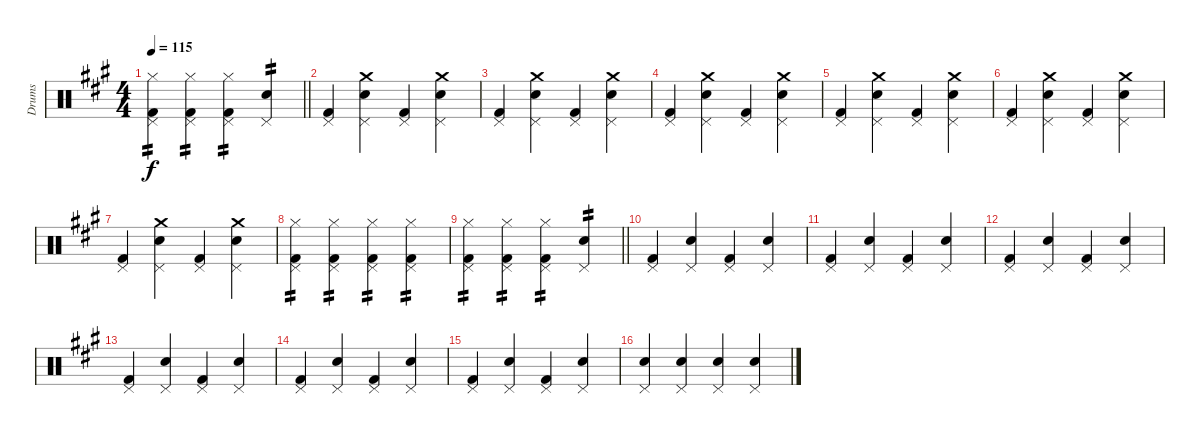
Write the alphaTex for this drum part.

\track ("Drums" "Drums") {instrument percussion}
\staff {score}
\articulation defaults
\ts (4 4)
\tempo 115
\clef neutral
\barLineRight lightlight
\ks a
("Kick (hit) 2" "Pedal Hi-Hat (hit)" "Hi-Hat (closed)").4{tp 2 dy f} ("Kick (hit) 2" "Pedal Hi-Hat (hit)" "Hi-Hat (closed)").4{tp 2} ("Kick (hit) 2" "Pedal Hi-Hat (hit)" "Hi-Hat (closed)").4{tp 2} ("Snare (hit) 2" "Pedal Hi-Hat (hit)").4{tp 2} |
("Kick (hit) 2" "Pedal Hi-Hat (hit)").4 ("Snare (hit) 2" "Pedal Hi-Hat (hit)" "Crash medium (hit)").4 ("Kick (hit) 2" "Pedal Hi-Hat (hit)").4 ("Snare (hit) 2" "Pedal Hi-Hat (hit)" "Crash medium (hit)").4 |
("Kick (hit) 2" "Pedal Hi-Hat (hit)").4 ("Snare (hit) 2" "Pedal Hi-Hat (hit)" "Crash medium (hit)").4 ("Kick (hit) 2" "Pedal Hi-Hat (hit)").4 ("Snare (hit) 2" "Pedal Hi-Hat (hit)" "Crash medium (hit)").4 |
("Kick (hit) 2" "Pedal Hi-Hat (hit)").4 ("Snare (hit) 2" "Pedal Hi-Hat (hit)" "Crash medium (hit)").4 ("Kick (hit) 2" "Pedal Hi-Hat (hit)").4 ("Snare (hit) 2" "Pedal Hi-Hat (hit)" "Crash medium (hit)").4 |
("Kick (hit) 2" "Pedal Hi-Hat (hit)").4 ("Snare (hit) 2" "Pedal Hi-Hat (hit)" "Crash medium (hit)").4 ("Kick (hit) 2" "Pedal Hi-Hat (hit)").4 ("Snare (hit) 2" "Pedal Hi-Hat (hit)" "Crash medium (hit)").4 |
("Kick (hit) 2" "Pedal Hi-Hat (hit)").4 ("Snare (hit) 2" "Pedal Hi-Hat (hit)" "Crash medium (hit)").4 ("Kick (hit) 2" "Pedal Hi-Hat (hit)").4 ("Snare (hit) 2" "Pedal Hi-Hat (hit)" "Crash medium (hit)").4 |
("Kick (hit) 2" "Pedal Hi-Hat (hit)").4 ("Snare (hit) 2" "Pedal Hi-Hat (hit)" "Crash medium (hit)").4 ("Kick (hit) 2" "Pedal Hi-Hat (hit)").4 ("Snare (hit) 2" "Pedal Hi-Hat (hit)" "Crash medium (hit)").4 |
("Kick (hit) 2" "Pedal Hi-Hat (hit)" "Hi-Hat (closed)").4{tp 2} ("Kick (hit) 2" "Pedal Hi-Hat (hit)" "Hi-Hat (closed)").4{tp 2} ("Kick (hit) 2" "Pedal Hi-Hat (hit)" "Hi-Hat (closed)").4{tp 2} ("Kick (hit) 2" "Pedal Hi-Hat (hit)" "Hi-Hat (closed)").4{tp 2} |
\barLineRight lightlight
("Kick (hit) 2" "Pedal Hi-Hat (hit)" "Hi-Hat (closed)").4{tp 2} ("Kick (hit) 2" "Pedal Hi-Hat (hit)" "Hi-Hat (closed)").4{tp 2} ("Kick (hit) 2" "Pedal Hi-Hat (hit)" "Hi-Hat (closed)").4{tp 2} ("Snare (hit) 2" "Pedal Hi-Hat (hit)").4{tp 2} |
("Kick (hit) 2" "Pedal Hi-Hat (hit)").4 ("Snare (hit) 2" "Pedal Hi-Hat (hit)").4 ("Kick (hit) 2" "Pedal Hi-Hat (hit)").4 ("Snare (hit) 2" "Pedal Hi-Hat (hit)").4 |
("Kick (hit) 2" "Pedal Hi-Hat (hit)").4 ("Snare (hit) 2" "Pedal Hi-Hat (hit)").4 ("Kick (hit) 2" "Pedal Hi-Hat (hit)").4 ("Snare (hit) 2" "Pedal Hi-Hat (hit)").4 |
("Kick (hit) 2" "Pedal Hi-Hat (hit)").4 ("Snare (hit) 2" "Pedal Hi-Hat (hit)").4 ("Kick (hit) 2" "Pedal Hi-Hat (hit)").4 ("Snare (hit) 2" "Pedal Hi-Hat (hit)").4 |
("Kick (hit) 2" "Pedal Hi-Hat (hit)").4 ("Snare (hit) 2" "Pedal Hi-Hat (hit)").4 ("Kick (hit) 2" "Pedal Hi-Hat (hit)").4 ("Snare (hit) 2" "Pedal Hi-Hat (hit)").4 |
("Kick (hit) 2" "Pedal Hi-Hat (hit)").4 ("Snare (hit) 2" "Pedal Hi-Hat (hit)").4 ("Kick (hit) 2" "Pedal Hi-Hat (hit)").4 ("Snare (hit) 2" "Pedal Hi-Hat (hit)").4 |
("Kick (hit) 2" "Pedal Hi-Hat (hit)").4 ("Snare (hit) 2" "Pedal Hi-Hat (hit)").4 ("Kick (hit) 2" "Pedal Hi-Hat (hit)").4 ("Snare (hit) 2" "Pedal Hi-Hat (hit)").4 |
("Snare (hit) 2" "Pedal Hi-Hat (hit)").4 ("Snare (hit) 2" "Pedal Hi-Hat (hit)").4 ("Snare (hit) 2" "Pedal Hi-Hat (hit)").4 ("Snare (hit) 2" "Pedal Hi-Hat (hit)").4
